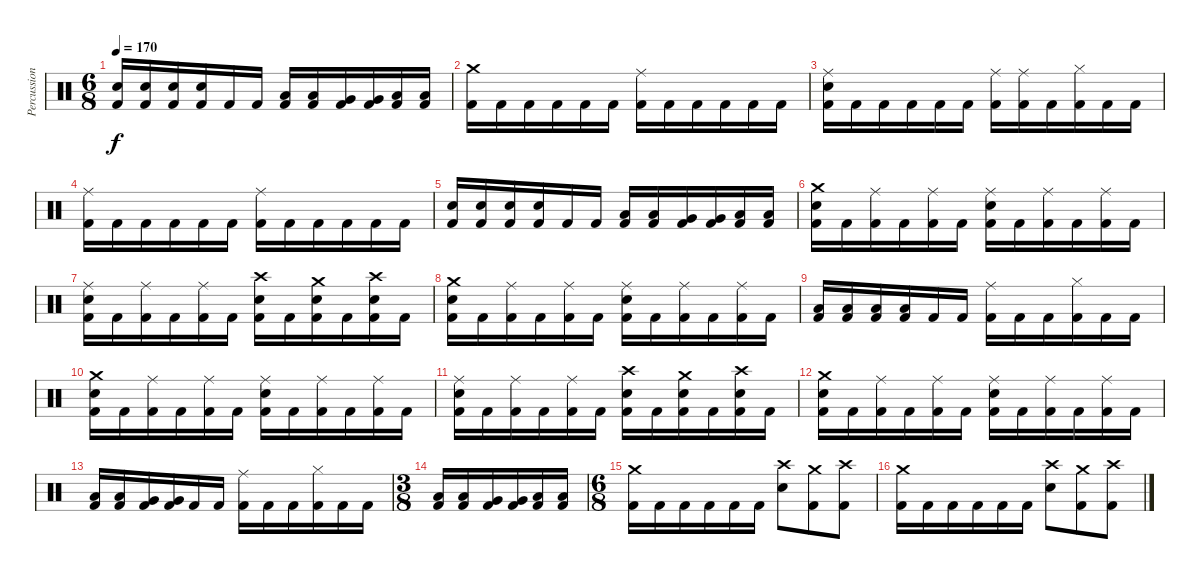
\track ("Percussions" "Percussion") {instrument percussion}
\staff {score}
\articulation defaults
\ts (6 8)
\tempo 170
\clef neutral
\ks c
("Electric Snare (hit)" "Kick (hit) 2").16{dy f} ("Electric Snare (hit)" "Kick (hit) 2").16 ("Electric Snare (hit)" "Kick (hit) 2").16 ("Electric Snare (hit)" "Kick (hit) 2").16 "Kick (hit) 2".16 "Kick (hit) 2".16 ("Low Tom (hit)" "Kick (hit) 2").16 ("Low Tom (hit)" "Kick (hit) 2").16 ("Very Low Tom (hit)" "Kick (hit) 2").16 ("Very Low Tom (hit)" "Kick (hit) 2").16 ("Low Floor Tom (hit)" "Kick (hit) 2").16 ("Low Floor Tom (hit)" "Kick (hit) 2").16 |
("Crash medium (hit)" "Kick (hit) 2").16 "Kick (hit) 2".16 "Kick (hit) 2".16 "Kick (hit) 2".16 "Kick (hit) 2".16 "Kick (hit) 2".16 ("Ride (middle)" "Kick (hit) 2").16 "Kick (hit) 2".16 "Kick (hit) 2".16 "Kick (hit) 2".16 "Kick (hit) 2".16 "Kick (hit) 2".16 |
("Ride (middle)" "Electric Snare (hit)" "Kick (hit) 2").16 "Kick (hit) 2".16 "Kick (hit) 2".16 "Kick (hit) 2".16 "Kick (hit) 2".16 "Kick (hit) 2".16 ("Ride (middle)" "Kick (hit) 2").16 ("Ride (middle)" "Kick (hit) 2").16 "Kick (hit) 2".16 ("Hi-Hat (closed)" "Kick (hit) 2").16 "Kick (hit) 2".16 "Kick (hit) 2".16 |
("Ride (middle)" "Kick (hit) 2").16 "Kick (hit) 2".16 "Kick (hit) 2".16 "Kick (hit) 2".16 "Kick (hit) 2".16 "Kick (hit) 2".16 ("Ride (middle)" "Kick (hit) 2").16 "Kick (hit) 2".16 "Kick (hit) 2".16 "Kick (hit) 2".16 "Kick (hit) 2".16 "Kick (hit) 2".16 |
("Electric Snare (hit)" "Kick (hit) 2").16 ("Electric Snare (hit)" "Kick (hit) 2").16 ("Electric Snare (hit)" "Kick (hit) 2").16 ("Electric Snare (hit)" "Kick (hit) 2").16 "Kick (hit) 2".16 "Kick (hit) 2".16 ("Low Tom (hit)" "Kick (hit) 2").16 ("Low Tom (hit)" "Kick (hit) 2").16 ("Very Low Tom (hit)" "Kick (hit) 2").16 ("Very Low Tom (hit)" "Kick (hit) 2").16 ("Low Floor Tom (hit)" "Kick (hit) 2").16 ("Low Floor Tom (hit)" "Kick (hit) 2").16 |
("Crash medium (hit)" "Electric Snare (hit)" "Kick (hit) 2").16 "Kick (hit) 2".16 ("Ride (middle)" "Kick (hit) 2").16 "Kick (hit) 2".16 ("Ride (middle)" "Kick (hit) 2").16 "Kick (hit) 2".16 ("Ride (middle)" "Electric Snare (hit)" "Kick (hit) 2").16 "Kick (hit) 2".16 ("Ride (middle)" "Kick (hit) 2").16 "Kick (hit) 2".16 ("Ride (middle)" "Kick (hit) 2").16 "Kick (hit) 2".16 |
("Ride (middle)" "Electric Snare (hit)" "Kick (hit) 2").16 "Kick (hit) 2".16 ("Ride (middle)" "Kick (hit) 2").16 "Kick (hit) 2".16 ("Ride (middle)" "Kick (hit) 2").16 "Kick (hit) 2".16 ("Crash high (hit)" "Electric Snare (hit)" "Kick (hit) 2").16 "Kick (hit) 2".16 ("Crash medium (hit)" "Electric Snare (hit)" "Kick (hit) 2").16 "Kick (hit) 2".16 ("Crash high (hit)" "Electric Snare (hit)" "Kick (hit) 2").16 "Kick (hit) 2".16 |
("Crash medium (hit)" "Electric Snare (hit)" "Kick (hit) 2").16 "Kick (hit) 2".16 ("Ride (middle)" "Kick (hit) 2").16 "Kick (hit) 2".16 ("Ride (middle)" "Kick (hit) 2").16 "Kick (hit) 2".16 ("Ride (middle)" "Electric Snare (hit)" "Kick (hit) 2").16 "Kick (hit) 2".16 ("Ride (middle)" "Kick (hit) 2").16 "Kick (hit) 2".16 ("Ride (middle)" "Kick (hit) 2").16 "Kick (hit) 2".16 |
("Low Tom (hit)" "Kick (hit) 2").16 ("Low Tom (hit)" "Kick (hit) 2").16 ("Low Tom (hit)" "Kick (hit) 2").16 ("Low Tom (hit)" "Kick (hit) 2").16 "Kick (hit) 2".16 "Kick (hit) 2".16 ("Ride (middle)" "Kick (hit) 2").16 "Kick (hit) 2".16 "Kick (hit) 2".16 ("Hi-Hat (closed)" "Kick (hit) 2").16 "Kick (hit) 2".16 "Kick (hit) 2".16 |
("Crash medium (hit)" "Electric Snare (hit)" "Kick (hit) 2").16 "Kick (hit) 2".16 ("Ride (middle)" "Kick (hit) 2").16 "Kick (hit) 2".16 ("Ride (middle)" "Kick (hit) 2").16 "Kick (hit) 2".16 ("Ride (middle)" "Electric Snare (hit)" "Kick (hit) 2").16 "Kick (hit) 2".16 ("Ride (middle)" "Kick (hit) 2").16 "Kick (hit) 2".16 ("Ride (middle)" "Kick (hit) 2").16 "Kick (hit) 2".16 |
("Ride (middle)" "Electric Snare (hit)" "Kick (hit) 2").16 "Kick (hit) 2".16 ("Ride (middle)" "Kick (hit) 2").16 "Kick (hit) 2".16 ("Ride (middle)" "Kick (hit) 2").16 "Kick (hit) 2".16 ("Crash high (hit)" "Electric Snare (hit)" "Kick (hit) 2").16 "Kick (hit) 2".16 ("Crash medium (hit)" "Electric Snare (hit)" "Kick (hit) 2").16 "Kick (hit) 2".16 ("Crash high (hit)" "Electric Snare (hit)" "Kick (hit) 2").16 "Kick (hit) 2".16 |
("Crash medium (hit)" "Electric Snare (hit)" "Kick (hit) 2").16 "Kick (hit) 2".16 ("Ride (middle)" "Kick (hit) 2").16 "Kick (hit) 2".16 ("Ride (middle)" "Kick (hit) 2").16 "Kick (hit) 2".16 ("Ride (middle)" "Electric Snare (hit)" "Kick (hit) 2").16 "Kick (hit) 2".16 ("Ride (middle)" "Kick (hit) 2").16 "Kick (hit) 2".16 ("Ride (middle)" "Kick (hit) 2").16 "Kick (hit) 2".16 |
("Low Tom (hit)" "Kick (hit) 2").16 ("Low Tom (hit)" "Kick (hit) 2").16 ("Very Low Tom (hit)" "Kick (hit) 2").16 ("Very Low Tom (hit)" "Kick (hit) 2").16 "Kick (hit) 2".16 "Kick (hit) 2".16 ("Ride (middle)" "Kick (hit) 2").16 "Kick (hit) 2".16 "Kick (hit) 2".16 ("Hi-Hat (closed)" "Kick (hit) 2").16 "Kick (hit) 2".16 "Kick (hit) 2".16 |
\ts (3 8)
("Low Tom (hit)" "Kick (hit) 2").16 ("Low Tom (hit)" "Kick (hit) 2").16 ("Very Low Tom (hit)" "Kick (hit) 2").16 ("Very Low Tom (hit)" "Kick (hit) 2").16 ("Low Floor Tom (hit)" "Kick (hit) 2").16 ("Low Floor Tom (hit)" "Kick (hit) 2").16 |
\ts (6 8)
("Crash medium (hit)" "Kick (hit) 2").16 "Kick (hit) 2".16 "Kick (hit) 2".16 "Kick (hit) 2".16 "Kick (hit) 2".16 "Kick (hit) 2".16 ("Crash high (hit)" "Electric Snare (hit)").8 ("Crash medium (hit)" "Kick (hit) 2").8 ("Crash high (hit)" "Kick (hit) 2").8 |
("Crash medium (hit)" "Kick (hit) 2").16 "Kick (hit) 2".16 "Kick (hit) 2".16 "Kick (hit) 2".16 "Kick (hit) 2".16 "Kick (hit) 2".16 ("Crash high (hit)" "Electric Snare (hit)").8 ("Crash medium (hit)" "Kick (hit) 2").8 ("Crash high (hit)" "Kick (hit) 2").8
